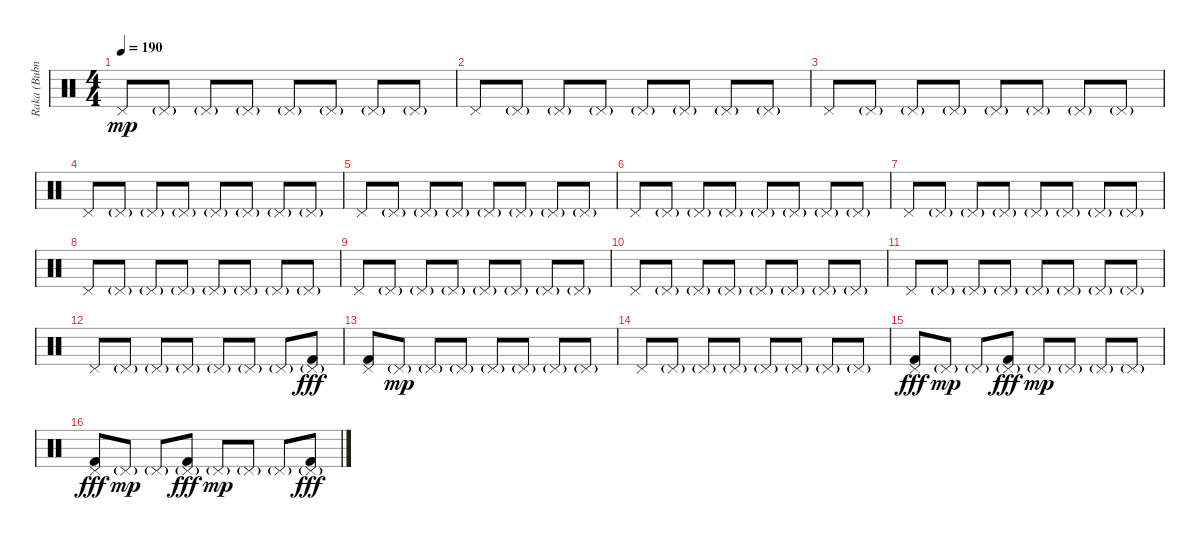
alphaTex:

\track ("Raka (Bubnjevi)" "Raka (Bubn") {instrument percussion}
\staff {score}
\articulation defaults
\ts (4 4)
\tempo 190
\clef neutral
\ks c "Pedal Hi-Hat (hit)".8{dy mp} "Pedal Hi-Hat (hit)"{g}.8 "Pedal Hi-Hat (hit)"{g}.8 "Pedal Hi-Hat (hit)"{g}.8 "Pedal Hi-Hat (hit)"{g}.8 "Pedal Hi-Hat (hit)"{g}.8 "Pedal Hi-Hat (hit)"{g}.8 "Pedal Hi-Hat (hit)"{g}.8
|
"Pedal Hi-Hat (hit)".8 "Pedal Hi-Hat (hit)"{g}.8 "Pedal Hi-Hat (hit)"{g}.8 "Pedal Hi-Hat (hit)"{g}.8 "Pedal Hi-Hat (hit)"{g}.8 "Pedal Hi-Hat (hit)"{g}.8 "Pedal Hi-Hat (hit)"{g}.8 "Pedal Hi-Hat (hit)"{g}.8 |
"Pedal Hi-Hat (hit)".8 "Pedal Hi-Hat (hit)"{g}.8 "Pedal Hi-Hat (hit)"{g}.8 "Pedal Hi-Hat (hit)"{g}.8 "Pedal Hi-Hat (hit)"{g}.8 "Pedal Hi-Hat (hit)"{g}.8 "Pedal Hi-Hat (hit)"{g}.8 "Pedal Hi-Hat (hit)"{g}.8 |
"Pedal Hi-Hat (hit)".8 "Pedal Hi-Hat (hit)"{g}.8 "Pedal Hi-Hat (hit)"{g}.8 "Pedal Hi-Hat (hit)"{g}.8 "Pedal Hi-Hat (hit)"{g}.8 "Pedal Hi-Hat (hit)"{g}.8 "Pedal Hi-Hat (hit)"{g}.8 "Pedal Hi-Hat (hit)"{g}.8 |
"Pedal Hi-Hat (hit)".8 "Pedal Hi-Hat (hit)"{g}.8 "Pedal Hi-Hat (hit)"{g}.8 "Pedal Hi-Hat (hit)"{g}.8 "Pedal Hi-Hat (hit)"{g}.8 "Pedal Hi-Hat (hit)"{g}.8 "Pedal Hi-Hat (hit)"{g}.8 "Pedal Hi-Hat (hit)"{g}.8 |
"Pedal Hi-Hat (hit)".8 "Pedal Hi-Hat (hit)"{g}.8 "Pedal Hi-Hat (hit)"{g}.8 "Pedal Hi-Hat (hit)"{g}.8 "Pedal Hi-Hat (hit)"{g}.8 "Pedal Hi-Hat (hit)"{g}.8 "Pedal Hi-Hat (hit)"{g}.8 "Pedal Hi-Hat (hit)"{g}.8 |
"Pedal Hi-Hat (hit)".8 "Pedal Hi-Hat (hit)"{g}.8 "Pedal Hi-Hat (hit)"{g}.8 "Pedal Hi-Hat (hit)"{g}.8 "Pedal Hi-Hat (hit)"{g}.8 "Pedal Hi-Hat (hit)"{g}.8 "Pedal Hi-Hat (hit)"{g}.8 "Pedal Hi-Hat (hit)"{g}.8 |
"Pedal Hi-Hat (hit)".8 "Pedal Hi-Hat (hit)"{g}.8 "Pedal Hi-Hat (hit)"{g}.8 "Pedal Hi-Hat (hit)"{g}.8 "Pedal Hi-Hat (hit)"{g}.8 "Pedal Hi-Hat (hit)"{g}.8 "Pedal Hi-Hat (hit)"{g}.8 "Pedal Hi-Hat (hit)"{g}.8 |
"Pedal Hi-Hat (hit)".8 "Pedal Hi-Hat (hit)"{g}.8 "Pedal Hi-Hat (hit)"{g}.8 "Pedal Hi-Hat (hit)"{g}.8 "Pedal Hi-Hat (hit)"{g}.8 "Pedal Hi-Hat (hit)"{g}.8 "Pedal Hi-Hat (hit)"{g}.8 "Pedal Hi-Hat (hit)"{g}.8 |
"Pedal Hi-Hat (hit)".8 "Pedal Hi-Hat (hit)"{g}.8 "Pedal Hi-Hat (hit)"{g}.8 "Pedal Hi-Hat (hit)"{g}.8 "Pedal Hi-Hat (hit)"{g}.8 "Pedal Hi-Hat (hit)"{g}.8 "Pedal Hi-Hat (hit)"{g}.8 "Pedal Hi-Hat (hit)"{g}.8 |
"Pedal Hi-Hat (hit)".8 "Pedal Hi-Hat (hit)"{g}.8 "Pedal Hi-Hat (hit)"{g}.8 "Pedal Hi-Hat (hit)"{g}.8 "Pedal Hi-Hat (hit)"{g}.8 "Pedal Hi-Hat (hit)"{g}.8 "Pedal Hi-Hat (hit)"{g}.8 "Pedal Hi-Hat (hit)"{g}.8 |
"Pedal Hi-Hat (hit)".8 "Pedal Hi-Hat (hit)"{g}.8 "Pedal Hi-Hat (hit)"{g}.8 "Pedal Hi-Hat (hit)"{g}.8 "Pedal Hi-Hat (hit)"{g}.8 "Pedal Hi-Hat (hit)"{g}.8 "Pedal Hi-Hat (hit)"{g}.8 ("Pedal Hi-Hat (hit)"{g} "Kick (hit) 2").8{dy fff} |
("Pedal Hi-Hat (hit)" "Kick (hit) 2").8 "Pedal Hi-Hat (hit)"{g}.8{dy mp} "Pedal Hi-Hat (hit)"{g}.8 "Pedal Hi-Hat (hit)"{g}.8 "Pedal Hi-Hat (hit)"{g}.8 "Pedal Hi-Hat (hit)"{g}.8 "Pedal Hi-Hat (hit)"{g}.8 "Pedal Hi-Hat (hit)"{g}.8 |
"Pedal Hi-Hat (hit)".8 "Pedal Hi-Hat (hit)"{g}.8 "Pedal Hi-Hat (hit)"{g}.8 "Pedal Hi-Hat (hit)"{g}.8 "Pedal Hi-Hat (hit)"{g}.8 "Pedal Hi-Hat (hit)"{g}.8 "Pedal Hi-Hat (hit)"{g}.8 "Pedal Hi-Hat (hit)"{g}.8 |
("Pedal Hi-Hat (hit)" "Kick (hit) 2").8{dy fff} "Pedal Hi-Hat (hit)"{g}.8{dy mp} "Pedal Hi-Hat (hit)"{g}.8 ("Pedal Hi-Hat (hit)"{g} "Kick (hit) 2").8{dy fff} "Pedal Hi-Hat (hit)"{g}.8{dy mp} "Pedal Hi-Hat (hit)"{g}.8 "Pedal Hi-Hat (hit)"{g}.8 "Pedal Hi-Hat (hit)"{g}.8 |
("Pedal Hi-Hat (hit)" "Kick (hit) 2").8{dy fff} "Pedal Hi-Hat (hit)"{g}.8{dy mp} "Pedal Hi-Hat (hit)"{g}.8 ("Pedal Hi-Hat (hit)"{g} "Kick (hit) 2").8{dy fff} "Pedal Hi-Hat (hit)"{g}.8{dy mp} "Pedal Hi-Hat (hit)"{g}.8 "Pedal Hi-Hat (hit)"{g}.8 ("Pedal Hi-Hat (hit)"{g} "Kick (hit) 2").8{dy fff}
